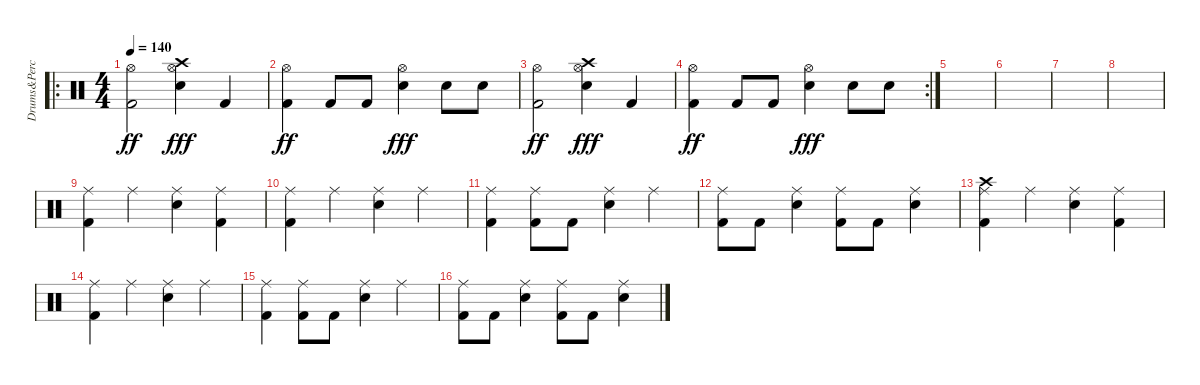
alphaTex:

\track ("Drums&Percusion" "Drums&Perc") {instrument percussion}
\staff {score}
\articulation defaults
\ro
\ts (4 4)
\tempo 140
\clef neutral
\ks c
("Hi-Hat (open)" "Kick (hit) 2").2{dy ff} ("Hi-Hat (open)" "Crash high (hit)" "Snare (hit) 2").4{dy fff} "Kick (hit) 2".4 |
("Hi-Hat (open)" "Kick (hit) 2").4{dy ff} "Kick (hit) 2".8 "Kick (hit) 2".8 ("Hi-Hat (open)" "Snare (hit) 2").4{dy fff} "Snare (hit) 2".8 "Snare (hit) 2".8 |
("Hi-Hat (open)" "Kick (hit) 2").2{dy ff} ("Hi-Hat (open)" "Crash high (hit)" "Snare (hit) 2").4{dy fff} "Kick (hit) 2".4 |
\rc 2
("Hi-Hat (open)" "Kick (hit) 2").4{dy ff} "Kick (hit) 2".8 "Kick (hit) 2".8 ("Hi-Hat (open)" "Snare (hit) 2").4{dy fff} "Snare (hit) 2".8 "Snare (hit) 2".8 |
|
|
|
|
("Ride (middle)" "Kick (hit) 2").4 "Ride (middle)".4 ("Ride (middle)" "Snare (hit) 2").4 ("Ride (middle)" "Kick (hit) 2").4 |
("Ride (middle)" "Kick (hit) 2").4 "Ride (middle)".4 ("Ride (middle)" "Snare (hit) 2").4 "Ride (middle)".4 |
("Ride (middle)" "Kick (hit) 2").4 ("Ride (middle)" "Kick (hit) 2").8 "Kick (hit) 2".8 ("Ride (middle)" "Snare (hit) 2").4 "Ride (middle)".4 |
("Ride (middle)" "Kick (hit) 2").8 "Kick (hit) 2".8 ("Ride (middle)" "Snare (hit) 2").4 ("Ride (middle)" "Kick (hit) 2").8 "Kick (hit) 2".8 ("Ride (middle)" "Snare (hit) 2").4 |
("Ride (middle)" "Crash high (hit)" "Kick (hit) 2").4 "Ride (middle)".4 ("Ride (middle)" "Snare (hit) 2").4 ("Ride (middle)" "Kick (hit) 2").4 |
("Ride (middle)" "Kick (hit) 2").4 "Ride (middle)".4 ("Ride (middle)" "Snare (hit) 2").4 "Ride (middle)".4 |
("Ride (middle)" "Kick (hit) 2").4 ("Ride (middle)" "Kick (hit) 2").8 "Kick (hit) 2".8 ("Ride (middle)" "Snare (hit) 2").4 "Ride (middle)".4 |
("Ride (middle)" "Kick (hit) 2").8 "Kick (hit) 2".8 ("Ride (middle)" "Snare (hit) 2").4 ("Ride (middle)" "Kick (hit) 2").8 "Kick (hit) 2".8 ("Ride (middle)" "Snare (hit) 2").4
